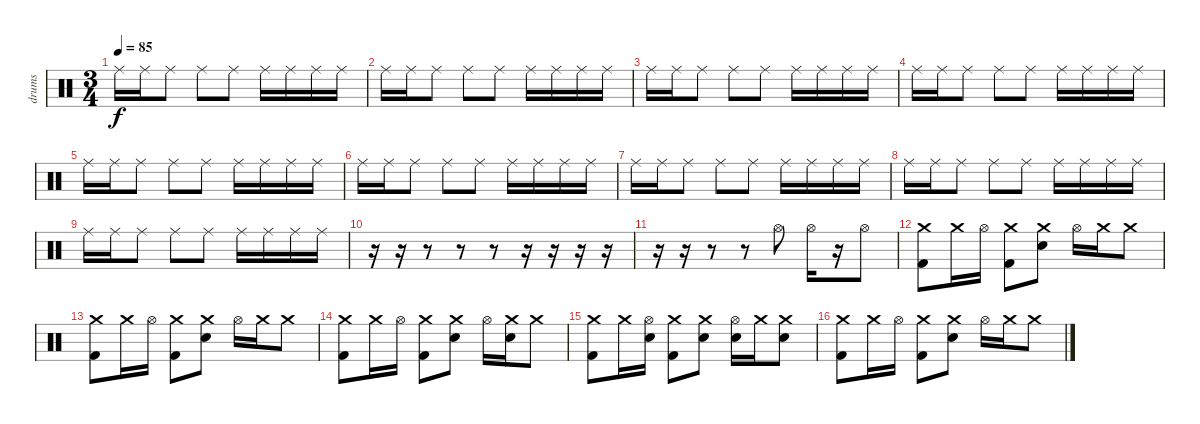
\track ("drums" "drums") {instrument percussion}
\staff {score}
\articulation defaults
\ts (3 4)
\tempo 85
\clef neutral
\ks c "Ride (middle)".16{dy f} "Ride (middle)".16 "Ride (middle)".8 "Ride (middle)".8 "Ride (middle)".8 "Ride (middle)".16 "Ride (middle)".16 "Ride (middle)".16 "Ride (middle)".16
|
"Ride (middle)".16 "Ride (middle)".16 "Ride (middle)".8 "Ride (middle)".8 "Ride (middle)".8 "Ride (middle)".16 "Ride (middle)".16 "Ride (middle)".16 "Ride (middle)".16 |
"Ride (middle)".16 "Ride (middle)".16 "Ride (middle)".8 "Ride (middle)".8 "Ride (middle)".8 "Ride (middle)".16 "Ride (middle)".16 "Ride (middle)".16 "Ride (middle)".16 |
"Ride (middle)".16 "Ride (middle)".16 "Ride (middle)".8 "Ride (middle)".8 "Ride (middle)".8 "Ride (middle)".16 "Ride (middle)".16 "Ride (middle)".16 "Ride (middle)".16 |
"Ride (middle)".16 "Ride (middle)".16 "Ride (middle)".8 "Ride (middle)".8 "Ride (middle)".8 "Ride (middle)".16 "Ride (middle)".16 "Ride (middle)".16 "Ride (middle)".16 |
"Ride (middle)".16 "Ride (middle)".16 "Ride (middle)".8 "Ride (middle)".8 "Ride (middle)".8 "Ride (middle)".16 "Ride (middle)".16 "Ride (middle)".16 "Ride (middle)".16 |
"Ride (middle)".16 "Ride (middle)".16 "Ride (middle)".8 "Ride (middle)".8 "Ride (middle)".8 "Ride (middle)".16 "Ride (middle)".16 "Ride (middle)".16 "Ride (middle)".16 |
"Ride (middle)".16 "Ride (middle)".16 "Ride (middle)".8 "Ride (middle)".8 "Ride (middle)".8 "Ride (middle)".16 "Ride (middle)".16 "Ride (middle)".16 "Ride (middle)".16 |
"Ride (middle)".16 "Ride (middle)".16 "Ride (middle)".8 "Ride (middle)".8 "Ride (middle)".8 "Ride (middle)".16 "Ride (middle)".16 "Ride (middle)".16 "Ride (middle)".16 |
r.16 r.16 r.8 r.8 r.8 r.16 r.16 r.16 r.16 |
r.16 r.16 r.8 r.8 "Hi-Hat (open)".8 "Hi-Hat (open)".16 r.16 "Hi-Hat (open)".8 |
("Crash medium (hit)" "Kick (hit) 2").8 "Crash medium (hit)".16 "Hi-Hat (open)".16 ("Kick (hit) 2" "Crash medium (hit)").8 ("Snare (hit) 2" "Crash medium (hit)").8 "Hi-Hat (open)".16 "Crash medium (hit)".16 "Crash medium (hit)".8 |
("Crash medium (hit)" "Kick (hit) 2").8 "Crash medium (hit)".16 "Hi-Hat (open)".16 ("Kick (hit) 2" "Crash medium (hit)").8 ("Snare (hit) 2" "Crash medium (hit)").8 "Hi-Hat (open)".16 "Crash medium (hit)".16 "Crash medium (hit)".8 |
("Crash medium (hit)" "Kick (hit) 2").8 "Crash medium (hit)".16 "Hi-Hat (open)".16 ("Kick (hit) 2" "Crash medium (hit)").8 ("Snare (hit) 2" "Crash medium (hit)").8 "Hi-Hat (open)".16 ("Snare (hit) 2" "Crash medium (hit)").16 "Crash medium (hit)".8 |
("Crash medium (hit)" "Kick (hit) 2").8 "Crash medium (hit)".16 ("Snare (hit) 2" "Hi-Hat (open)").16 ("Kick (hit) 2" "Crash medium (hit)").8 ("Snare (hit) 2" "Crash medium (hit)").8 ("Snare (hit) 2" "Hi-Hat (open)").16 "Crash medium (hit)".16 ("Snare (hit) 2" "Crash medium (hit)").8 |
("Crash medium (hit)" "Kick (hit) 2").8 "Crash medium (hit)".16 "Hi-Hat (open)".16 ("Kick (hit) 2" "Crash medium (hit)").8 ("Snare (hit) 2" "Crash medium (hit)").8 "Hi-Hat (open)".16 "Crash medium (hit)".16 "Crash medium (hit)".8
